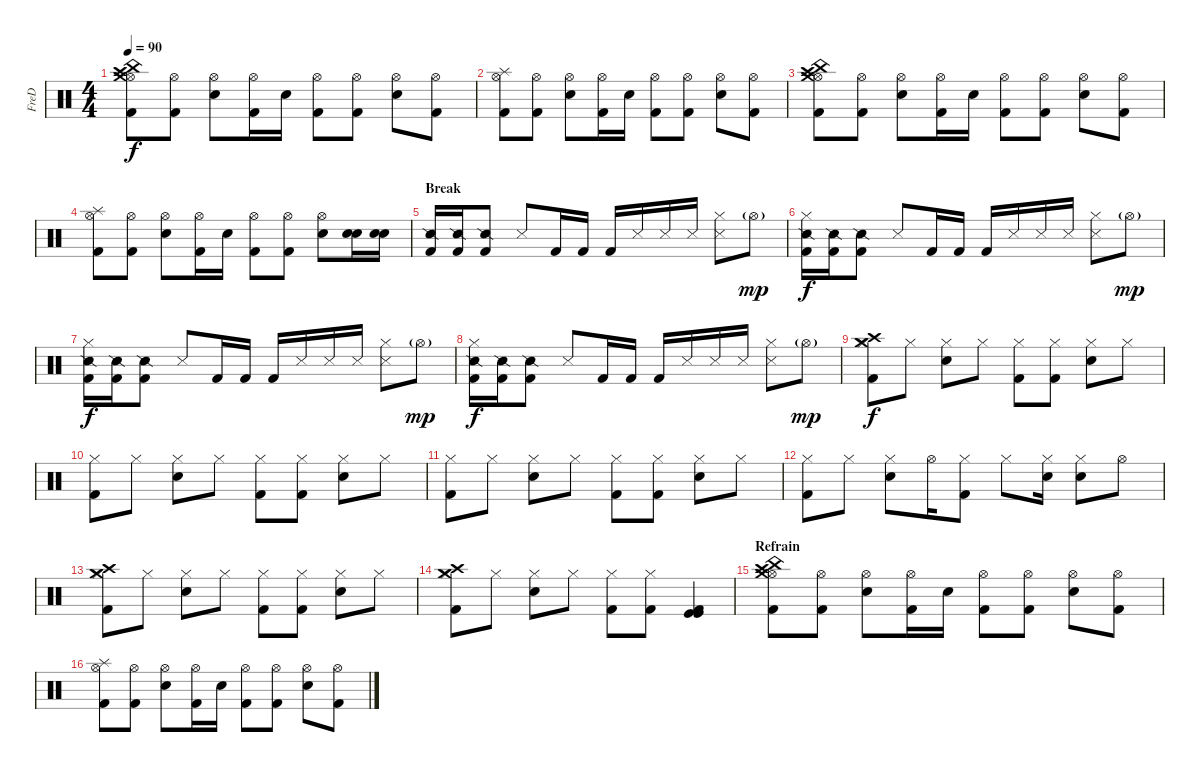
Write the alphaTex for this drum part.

\track ("FreD" "FreD") {instrument percussion}
\staff {score}
\articulation defaults
\ts (4 4)
\tempo 90
\clef neutral
\ks c
("China (hit)" "Hi-Hat (open)" "Crash high (hit)" "Crash medium (hit)" "Kick (hit) 2").8{dy f} ("Hi-Hat (open)" "Kick (hit) 2").8 ("Hi-Hat (open)" "Electric Snare (hit)").8 ("Hi-Hat (open)" "Kick (hit) 2").16 "Electric Snare (hit)".16 ("Hi-Hat (open)" "Kick (hit) 2").8 ("Hi-Hat (open)" "Kick (hit) 2").8 ("Hi-Hat (open)" "Electric Snare (hit)").8 ("Hi-Hat (open)" "Kick (hit) 2").8 |
("Hi-Hat (open)" "Splash (hit)" "Kick (hit) 2").8 ("Hi-Hat (open)" "Kick (hit) 2").8 ("Hi-Hat (open)" "Electric Snare (hit)").8 ("Hi-Hat (open)" "Kick (hit) 2").16 "Electric Snare (hit)".16 ("Hi-Hat (open)" "Kick (hit) 2").8 ("Hi-Hat (open)" "Kick (hit) 2").8 ("Hi-Hat (open)" "Electric Snare (hit)").8 ("Hi-Hat (open)" "Kick (hit) 2").8 |
("China (hit)" "Hi-Hat (open)" "Crash high (hit)" "Crash medium (hit)" "Kick (hit) 2").8 ("Hi-Hat (open)" "Kick (hit) 2").8 ("Hi-Hat (open)" "Electric Snare (hit)").8 ("Hi-Hat (open)" "Kick (hit) 2").16 "Electric Snare (hit)".16 ("Hi-Hat (open)" "Kick (hit) 2").8 ("Hi-Hat (open)" "Kick (hit) 2").8 ("Hi-Hat (open)" "Electric Snare (hit)").8 ("Hi-Hat (open)" "Kick (hit) 2").8 |
("Hi-Hat (open)" "Splash (hit)" "Kick (hit) 2").8 ("Hi-Hat (open)" "Kick (hit) 2").8 ("Hi-Hat (open)" "Electric Snare (hit)").8 ("Hi-Hat (open)" "Kick (hit) 2").16 "Electric Snare (hit)".16 ("Hi-Hat (open)" "Kick (hit) 2").8 ("Hi-Hat (open)" "Kick (hit) 2").8 ("Hi-Hat (open)" "Electric Snare (hit)").8 ("Electric Snare (hit)" "Electric Snare (hit)").16 ("Electric Snare (hit)" "Electric Snare (hit)").16 |
\section ("" "Break")
("Snare (side stick) 2" "Kick (hit) 2").16{volume 0} ("Snare (side stick) 2" "Kick (hit) 2").16{volume 13} ("Snare (side stick) 2" "Kick (hit) 2").8 "Metronome (hit)".8 "Kick (hit) 2".16 "Kick (hit) 2".16 "Kick (hit) 2".16 "Snare (side stick) 3".16 "Metronome (hit)".16 "Snare (side stick) 3".16 ("Hi-Hat (closed)" "Metronome (hit)").8 "Hi-Hat (open)"{g}.8{dy mp} |
("Hi-Hat (closed)" "Snare (side stick) 2" "Kick (hit) 2").16{dy f} ("Snare (side stick) 2" "Kick (hit) 2").16 ("Snare (side stick) 2" "Kick (hit) 2").8 "Metronome (hit)".8 "Kick (hit) 2".16 "Kick (hit) 2".16 "Kick (hit) 2".16 "Snare (side stick) 3".16 "Metronome (hit)".16 "Snare (side stick) 3".16 ("Hi-Hat (closed)" "Metronome (hit)").8 "Hi-Hat (open)"{g}.8{dy mp} |
("Hi-Hat (closed)" "Snare (side stick) 2" "Kick (hit) 2").16{dy f} ("Snare (side stick) 2" "Kick (hit) 2").16 ("Snare (side stick) 2" "Kick (hit) 2").8 "Metronome (hit)".8 "Kick (hit) 2".16 "Kick (hit) 2".16 "Kick (hit) 2".16 "Snare (side stick) 3".16 "Metronome (hit)".16 "Snare (side stick) 3".16 ("Hi-Hat (closed)" "Metronome (hit)").8 "Hi-Hat (open)"{g}.8{dy mp} |
("Hi-Hat (closed)" "Snare (side stick) 2" "Kick (hit) 2").16{dy f} ("Snare (side stick) 2" "Kick (hit) 2").16 ("Snare (side stick) 2" "Kick (hit) 2").8 "Metronome (hit)".8 "Kick (hit) 2".16 "Kick (hit) 2".16 "Kick (hit) 2".16 "Snare (side stick) 3".16 "Metronome (hit)".16 "Snare (side stick) 3".16 ("Hi-Hat (closed)" "Metronome (hit)").8 "Hi-Hat (open)"{g}.8{dy mp} |
("Hi-Hat (closed)" "Crash medium (hit)" "Crash high (hit)" "Kick (hit) 2").8{dy f volume 13} "Hi-Hat (closed)".8 ("Hi-Hat (closed)" "Snare (hit) 2").8 "Hi-Hat (closed)".8 ("Hi-Hat (closed)" "Kick (hit) 2").8 ("Hi-Hat (closed)" "Kick (hit) 2").8 ("Hi-Hat (closed)" "Snare (hit) 2").8 "Hi-Hat (closed)".8 |
("Hi-Hat (closed)" "Kick (hit) 2").8{volume 13} "Hi-Hat (closed)".8 ("Hi-Hat (closed)" "Snare (hit) 2").8 "Hi-Hat (closed)".8 ("Hi-Hat (closed)" "Kick (hit) 2").8 ("Hi-Hat (closed)" "Kick (hit) 2").8 ("Hi-Hat (closed)" "Snare (hit) 2").8 "Hi-Hat (closed)".8 |
("Hi-Hat (closed)" "Kick (hit) 2").8{volume 13} "Hi-Hat (closed)".8 ("Hi-Hat (closed)" "Snare (hit) 2").8 "Hi-Hat (closed)".8 ("Hi-Hat (closed)" "Kick (hit) 2").8 ("Hi-Hat (closed)" "Kick (hit) 2").8 ("Hi-Hat (closed)" "Snare (hit) 2").8 "Hi-Hat (closed)".8 |
("Hi-Hat (closed)" "Kick (hit) 2").8{volume 13} "Hi-Hat (closed)".8 ("Hi-Hat (closed)" "Snare (hit) 2").8 "Hi-Hat (open)".16 ("Hi-Hat (closed)" "Kick (hit) 2").8 "Hi-Hat (closed)".8 ("Hi-Hat (closed)" "Electric Snare (hit)").16 ("Hi-Hat (closed)" "Electric Snare (hit)").8 "Hi-Hat (open)".8 |
("Hi-Hat (closed)" "Crash medium (hit)" "Crash high (hit)" "Kick (hit) 2").8{volume 13} "Hi-Hat (closed)".8 ("Hi-Hat (closed)" "Snare (hit) 2").8 "Hi-Hat (closed)".8 ("Hi-Hat (closed)" "Kick (hit) 2").8 ("Hi-Hat (closed)" "Kick (hit) 2").8 ("Hi-Hat (closed)" "Snare (hit) 2").8 "Hi-Hat (closed)".8 |
("Hi-Hat (closed)" "Crash medium (hit)" "Crash high (hit)" "Kick (hit) 2").8{volume 13} "Hi-Hat (closed)".8 ("Hi-Hat (closed)" "Snare (hit) 2").8 "Hi-Hat (closed)".8 ("Hi-Hat (closed)" "Kick (hit) 2").8 ("Hi-Hat (closed)" "Kick (hit) 2").8 ("Kick (hit)" "Kick (hit)" "Kick (hit) 2").4 |
\section ("" "Refrain")
("China (hit)" "Hi-Hat (open)" "Crash high (hit)" "Crash medium (hit)" "Kick (hit) 2").8{volume 13} ("Hi-Hat (open)" "Kick (hit) 2").8 ("Hi-Hat (open)" "Electric Snare (hit)").8 ("Hi-Hat (open)" "Kick (hit) 2").16 "Electric Snare (hit)".16 ("Hi-Hat (open)" "Kick (hit) 2").8 ("Hi-Hat (open)" "Kick (hit) 2").8 ("Hi-Hat (open)" "Electric Snare (hit)").8 ("Hi-Hat (open)" "Kick (hit) 2").8 |
("Hi-Hat (open)" "Splash (hit)" "Kick (hit) 2").8 ("Hi-Hat (open)" "Kick (hit) 2").8 ("Hi-Hat (open)" "Electric Snare (hit)").8 ("Hi-Hat (open)" "Kick (hit) 2").16 "Electric Snare (hit)".16 ("Hi-Hat (open)" "Kick (hit) 2").8 ("Hi-Hat (open)" "Kick (hit) 2").8 ("Hi-Hat (open)" "Electric Snare (hit)").8 ("Hi-Hat (open)" "Kick (hit) 2").8
